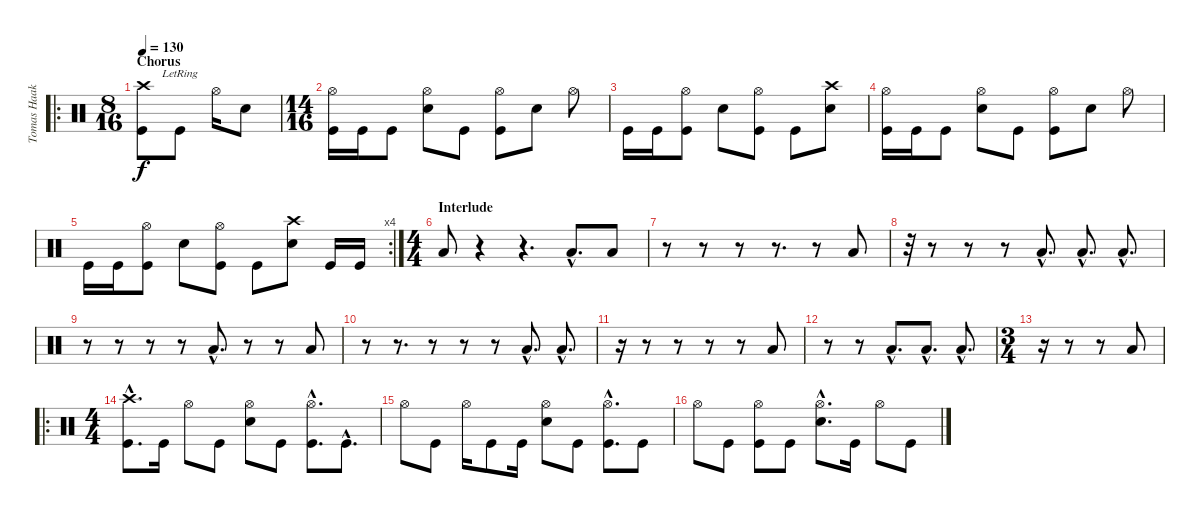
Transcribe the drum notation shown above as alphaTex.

\track ("Tomas Haake - Drums" "Tomas Haak") {instrument percussion}
\staff {score}
\articulation defaults
\ro
\ts (8 16)
\section ("" "Chorus")
\tempo 130
\clef neutral
\ks c
("Crash high (hit)" "Kick (hit)").8{dy f} "Kick (hit)"{lr}.8 "Hi-Hat (open)".16 "Electric Snare (hit)".8 |
\ts (14 16)
("Hi-Hat (open)" "Kick (hit)").16 "Kick (hit)".16 "Kick (hit)".8 ("Hi-Hat (open)" "Electric Snare (hit)").8 "Kick (hit)".8 ("Hi-Hat (open)" "Kick (hit)").8 "Electric Snare (hit)".8 "Hi-Hat (open)".8 |
"Kick (hit)".16 "Kick (hit)".16 ("Hi-Hat (open)" "Kick (hit)").8 "Electric Snare (hit)".8 ("Hi-Hat (open)" "Kick (hit)").8 "Kick (hit)".8 ("Crash high (hit)" "Electric Snare (hit)").8 |
("Hi-Hat (open)" "Kick (hit)").16 "Kick (hit)".16 "Kick (hit)".8 ("Hi-Hat (open)" "Electric Snare (hit)").8 "Kick (hit)".8 ("Hi-Hat (open)" "Kick (hit)").8 "Electric Snare (hit)".8 "Hi-Hat (open)".8 |
\rc 4 "Kick (hit)".16 "Kick (hit)".16
("Hi-Hat (open)" "Kick (hit)").8 "Electric Snare (hit)".8 ("Hi-Hat (open)" "Kick (hit)").8 "Kick (hit)".8 ("Crash high (hit)" "Electric Snare (hit)").8 "Kick (hit)".16 "Kick (hit)".16 |
\ts (4 4)
\section ("" "Interlude")
"Low Floor Tom (hit)".8 r.4 r.4{d} "Low Floor Tom (hit)"{hac}.8{d} "Low Floor Tom (hit)".8 |
r.8 r.8 r.8 r.8{d} r.8 "Low Floor Tom (hit)".8 |
r.32 r.8 r.8 r.8 "Low Floor Tom (hit)"{hac}.8{d} "Low Floor Tom (hit)"{hac}.8{d} "Low Floor Tom (hit)"{hac}.8{d} |
r.8 r.8 r.8 r.8 "Low Floor Tom (hit)"{hac}.8{d} r.8 r.8 "Low Floor Tom (hit)".8 |
r.8 r.8{d} r.8 r.8 r.8 "Low Floor Tom (hit)"{hac}.8{d} "Low Floor Tom (hit)"{hac}.8{d} |
r.16 r.8 r.8 r.8 r.8 "Low Floor Tom (hit)".8 |
r.8 r.8 "Low Floor Tom (hit)"{hac}.8{d} "Low Floor Tom (hit)"{hac}.8{d} "Low Floor Tom (hit)"{hac}.8{d} |
\ts (3 4)
r.16 r.8 r.8 "Low Floor Tom (hit)".8 |
\ro
\ts (4 4)
("Crash high (hit)"{hac} "Kick (hit)"{hac}).8{d} "Kick (hit)".16 "Hi-Hat (open)".8 "Kick (hit)".8 ("Hi-Hat (open)" "Electric Snare (hit)").8 "Kick (hit)".8 ("Hi-Hat (open)"{hac} "Kick (hit)"{hac}).8{d} "Kick (hit)"{hac}.8{d} |
"Hi-Hat (open)".8 "Kick (hit)".8 "Hi-Hat (open)".16 "Kick (hit)".8 "Kick (hit)".16 ("Hi-Hat (open)" "Electric Snare (hit)").8 "Kick (hit)".8 ("Hi-Hat (open)"{hac} "Kick (hit)"{hac}).8{d} "Kick (hit)".8 |
"Hi-Hat (open)".8 "Kick (hit)".8 ("Hi-Hat (open)" "Kick (hit)").8 "Kick (hit)".8 ("Hi-Hat (open)"{hac} "Electric Snare (hit)"{hac}).8{d} "Kick (hit)".16 "Hi-Hat (open)".8 "Kick (hit)".8
